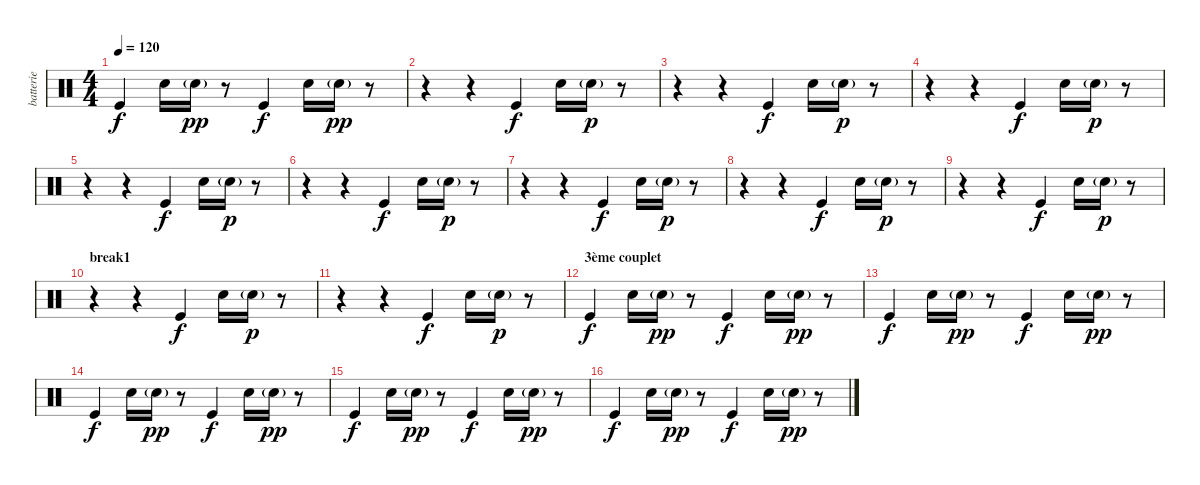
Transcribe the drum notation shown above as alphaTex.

\track ("batterie" "batterie") {instrument percussion}
\staff {score}
\articulation defaults
\ts (4 4)
\tempo 120
\clef neutral
\ks c "Kick (hit)".4{dy f} "Electric Snare (hit)".16 "Electric Snare (hit)"{g}.16{dy pp}
r.8 "Kick (hit)".4{dy f} "Electric Snare (hit)".16 "Electric Snare (hit)"{g}.16{dy pp} r.8 |
r.4 r.4 "Kick (hit)".4{dy f} "Electric Snare (hit)".16 "Electric Snare (hit)"{g}.16{dy p} r.8 |
r.4 r.4 "Kick (hit)".4{dy f} "Electric Snare (hit)".16 "Electric Snare (hit)"{g}.16{dy p} r.8 |
r.4 r.4 "Kick (hit)".4{dy f} "Electric Snare (hit)".16 "Electric Snare (hit)"{g}.16{dy p} r.8 |
r.4 r.4 "Kick (hit)".4{dy f} "Electric Snare (hit)".16 "Electric Snare (hit)"{g}.16{dy p} r.8 |
r.4 r.4 "Kick (hit)".4{dy f} "Electric Snare (hit)".16 "Electric Snare (hit)"{g}.16{dy p} r.8 |
r.4 r.4 "Kick (hit)".4{dy f} "Electric Snare (hit)".16 "Electric Snare (hit)"{g}.16{dy p} r.8 |
r.4 r.4 "Kick (hit)".4{dy f} "Electric Snare (hit)".16 "Electric Snare (hit)"{g}.16{dy p} r.8 |
r.4 r.4 "Kick (hit)".4{dy f} "Electric Snare (hit)".16 "Electric Snare (hit)"{g}.16{dy p} r.8 |
\section ("" "break1")
r.4 r.4 "Kick (hit)".4{dy f} "Electric Snare (hit)".16 "Electric Snare (hit)"{g}.16{dy p} r.8 |
r.4 r.4 "Kick (hit)".4{dy f} "Electric Snare (hit)".16 "Electric Snare (hit)"{g}.16{dy p} r.8 |
\section ("" "3ème couplet")
"Kick (hit)".4{dy f} "Electric Snare (hit)".16 "Electric Snare (hit)"{g}.16{dy pp} r.8 "Kick (hit)".4{dy f} "Electric Snare (hit)".16 "Electric Snare (hit)"{g}.16{dy pp} r.8 |
"Kick (hit)".4{dy f} "Electric Snare (hit)".16 "Electric Snare (hit)"{g}.16{dy pp} r.8 "Kick (hit)".4{dy f} "Electric Snare (hit)".16 "Electric Snare (hit)"{g}.16{dy pp} r.8 |
"Kick (hit)".4{dy f} "Electric Snare (hit)".16 "Electric Snare (hit)"{g}.16{dy pp} r.8 "Kick (hit)".4{dy f} "Electric Snare (hit)".16 "Electric Snare (hit)"{g}.16{dy pp} r.8 |
"Kick (hit)".4{dy f} "Electric Snare (hit)".16 "Electric Snare (hit)"{g}.16{dy pp} r.8 "Kick (hit)".4{dy f} "Electric Snare (hit)".16 "Electric Snare (hit)"{g}.16{dy pp} r.8 |
"Kick (hit)".4{dy f} "Electric Snare (hit)".16 "Electric Snare (hit)"{g}.16{dy pp} r.8 "Kick (hit)".4{dy f} "Electric Snare (hit)".16 "Electric Snare (hit)"{g}.16{dy pp} r.8
